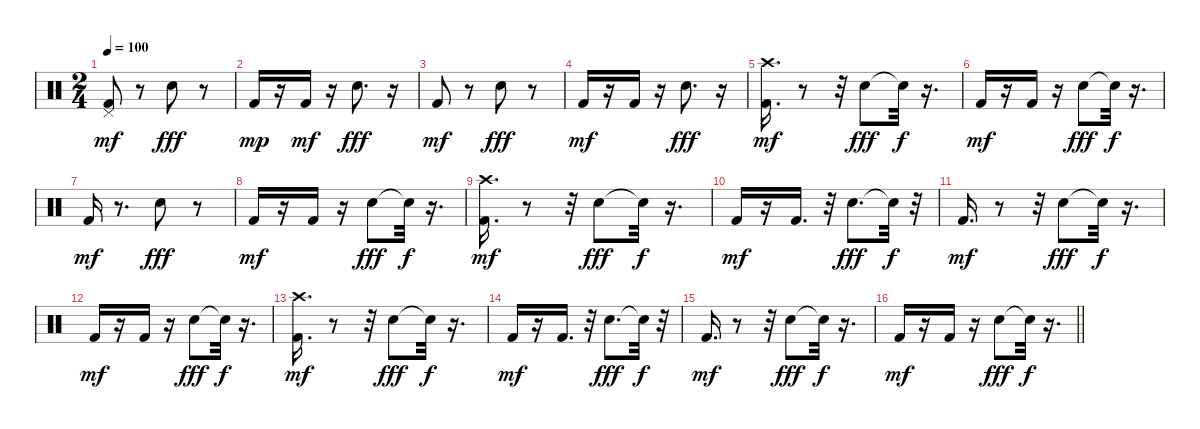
\track "" {instrument percussion}
\staff {score}
\articulation defaults
\ts (2 4)
\tempo 100
\clef neutral
\ks c
("Pedal Hi-Hat (hit)" "Kick (hit) 2").8{dy mf} r.8 "Snare (hit) 2".8{dy fff} r.8 |
"Kick (hit) 2".16{dy mp} r.16 "Kick (hit) 2".16{dy mf} r.16 "Snare (hit) 2".8{d dy fff} r.16 |
"Kick (hit) 2".8{dy mf} r.8 "Snare (hit) 2".8{dy fff} r.8 |
"Kick (hit) 2".16{dy mf} r.16 "Kick (hit) 2".16 r.16 "Snare (hit) 2".8{d dy fff} r.16 |
("Crash high (hit)" "Kick (hit) 2").16{d dy mf} r.8 r.32 "Snare (hit) 2".8{dy fff} "Snare (hit)"{t}.32{dy f} r.16{d} |
"Kick (hit) 2".16{dy mf} r.16 "Kick (hit) 2".16 r.16 "Snare (hit) 2".8{dy fff} "Snare (hit)"{t}.32{dy f} r.16{d} |
"Kick (hit) 2".16{dy mf} r.8{d} "Snare (hit) 2".8{dy fff} r.8 |
"Kick (hit) 2".16{dy mf} r.16 "Kick (hit) 2".16 r.16 "Snare (hit) 2".8{dy fff} "Snare (hit)"{t}.32{dy f} r.16{d} |
("Crash high (hit)" "Kick (hit) 2").16{d dy mf} r.8 r.32 "Snare (hit) 2".8{dy fff} "Snare (hit)"{t}.32{dy f} r.16{d} |
"Kick (hit) 2".16{dy mf} r.16 "Kick (hit) 2".16{d} r.32 "Snare (hit) 2".8{d dy fff} "Snare (hit)"{t}.32{dy f} r.32 |
"Kick (hit) 2".16{d dy mf} r.8 r.32 "Snare (hit) 2".8{dy fff} "Snare (hit)"{t}.32{dy f} r.16{d} |
"Kick (hit) 2".16{dy mf} r.16 "Kick (hit) 2".16 r.16 "Snare (hit) 2".8{dy fff} "Snare (hit)"{t}.32{dy f} r.16{d} |
("Crash high (hit)" "Kick (hit) 2").16{d dy mf} r.8 r.32 "Snare (hit) 2".8{dy fff} "Snare (hit)"{t}.32{dy f} r.16{d} |
"Kick (hit) 2".16{dy mf} r.16 "Kick (hit) 2".16{d} r.32 "Snare (hit) 2".8{d dy fff} "Snare (hit)"{t}.32{dy f} r.32 |
"Kick (hit) 2".16{d dy mf} r.8 r.32 "Snare (hit) 2".8{dy fff} "Snare (hit)"{t}.32{dy f} r.16{d} |
\barLineRight lightlight "Kick (hit) 2".16{dy mf}
r.16 "Kick (hit) 2".16 r.16 "Snare (hit) 2".8{dy fff} "Snare (hit)"{t}.32{dy f} r.16{d}
